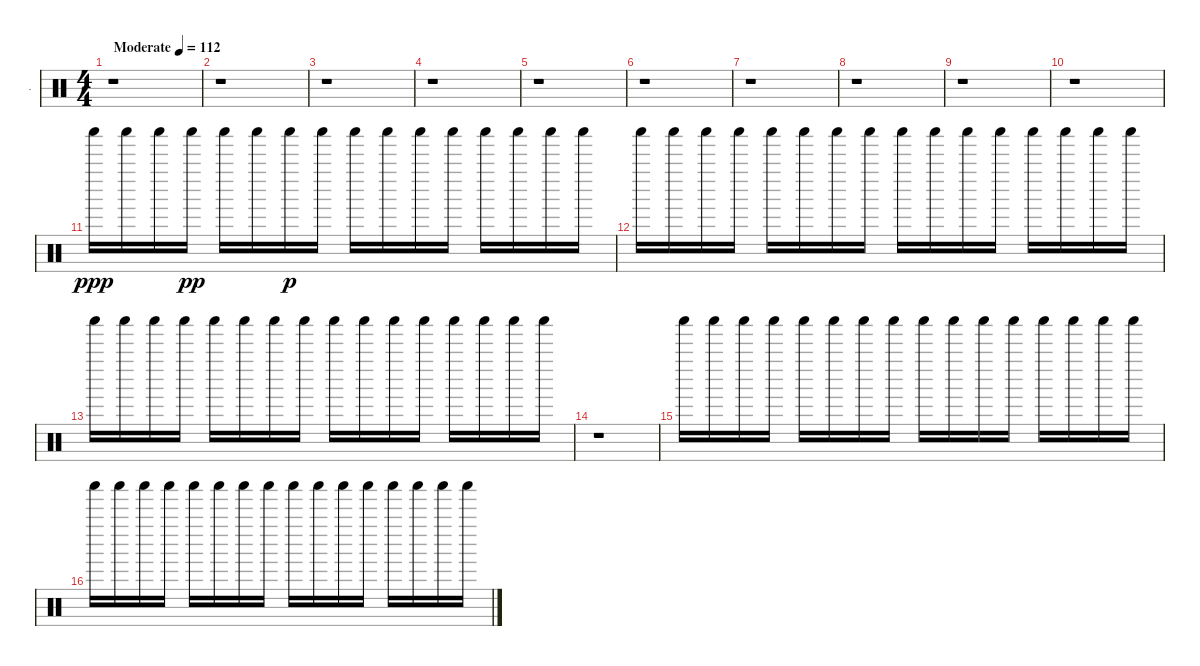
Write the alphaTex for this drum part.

\track ("." ".") {instrument percussion}
\staff {score}
\articulation defaults
\ts (4 4)
\tempo (112 "Moderate")
\clef neutral
\ks c
r.1{dy ppp} |
r.1 |
r.1 |
r.1 |
r.1 |
r.1 |
r.1 |
r.1 |
r.1 |
r.1 |
"Shaker (hit)".16 "Shaker (hit)".16 "Shaker (hit)".16 "Shaker (hit)".16{dy pp} "Shaker (hit)".16 "Shaker (hit)".16 "Shaker (hit)".16{dy p} "Shaker (hit)".16 "Shaker (hit)".16 "Shaker (hit)".16 "Shaker (hit)".16 "Shaker (hit)".16 "Shaker (hit)".16 "Shaker (hit)".16 "Shaker (hit)".16 "Shaker (hit)".16 |
"Shaker (hit)".16 "Shaker (hit)".16 "Shaker (hit)".16 "Shaker (hit)".16 "Shaker (hit)".16 "Shaker (hit)".16 "Shaker (hit)".16 "Shaker (hit)".16 "Shaker (hit)".16 "Shaker (hit)".16 "Shaker (hit)".16 "Shaker (hit)".16 "Shaker (hit)".16 "Shaker (hit)".16 "Shaker (hit)".16 "Shaker (hit)".16 |
"Shaker (hit)".16 "Shaker (hit)".16 "Shaker (hit)".16 "Shaker (hit)".16 "Shaker (hit)".16 "Shaker (hit)".16 "Shaker (hit)".16 "Shaker (hit)".16 "Shaker (hit)".16 "Shaker (hit)".16 "Shaker (hit)".16 "Shaker (hit)".16 "Shaker (hit)".16 "Shaker (hit)".16 "Shaker (hit)".16 "Shaker (hit)".16 |
r.1 |
"Shaker (hit)".16 "Shaker (hit)".16 "Shaker (hit)".16 "Shaker (hit)".16 "Shaker (hit)".16 "Shaker (hit)".16 "Shaker (hit)".16 "Shaker (hit)".16 "Shaker (hit)".16 "Shaker (hit)".16 "Shaker (hit)".16 "Shaker (hit)".16 "Shaker (hit)".16 "Shaker (hit)".16 "Shaker (hit)".16 "Shaker (hit)".16 |
"Shaker (hit)".16 "Shaker (hit)".16 "Shaker (hit)".16 "Shaker (hit)".16 "Shaker (hit)".16 "Shaker (hit)".16 "Shaker (hit)".16 "Shaker (hit)".16 "Shaker (hit)".16 "Shaker (hit)".16 "Shaker (hit)".16 "Shaker (hit)".16 "Shaker (hit)".16 "Shaker (hit)".16 "Shaker (hit)".16 "Shaker (hit)".16
